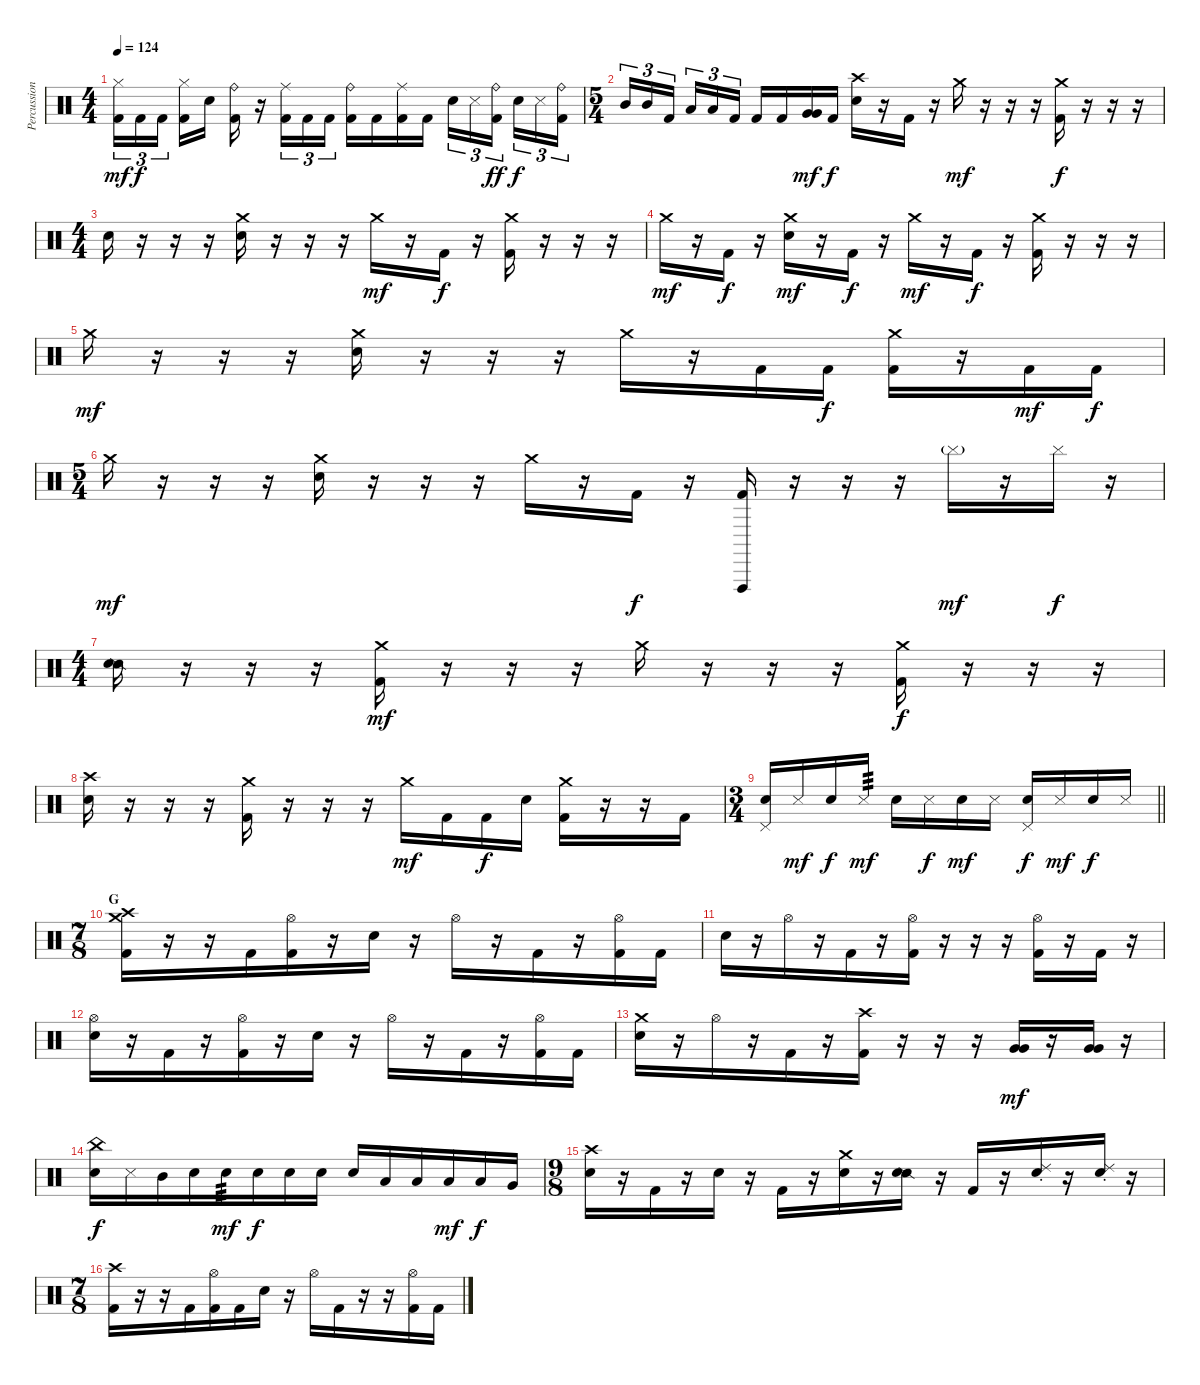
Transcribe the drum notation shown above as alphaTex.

\track ("Percussion" "Percussion") {instrument percussion}
\staff {score}
\articulation defaults
\ts (4 4)
\tempo 124
\clef neutral
\ks c
("Hi-Hat (closed)" "Kick (hit) 2").16{tu (3 2) dy mf} "Kick (hit) 2".16{tu (3 2) dy f} "Kick (hit) 2".16{tu (3 2) beam splitsecondary} ("Hi-Hat (closed)" "Kick (hit) 2").16 "Snare (hit) 2".16 ("Ride (bell)" "Kick (hit) 2").16 r.16 ("Ride (middle)" "Kick (hit) 2").16{tu (3 2)} "Kick (hit) 2".16{tu (3 2)} "Kick (hit) 2".16{tu (3 2)} ("Ride (bell)" "Kick (hit) 2").16 "Kick (hit) 2".16 ("Ride (middle)" "Kick (hit) 2").16 "Kick (hit) 2".16 "Snare (hit) 2".16{tu (3 2)} "Metronome (hit)".16{tu (3 2)} ("Ride (bell)" "Kick (hit) 2").16{tu (3 2) dy ff beam splitsecondary} "Snare (hit) 2".16{tu (3 2) dy f} "Metronome (hit)".16{tu (3 2)} ("Ride (bell)" "Kick (hit) 2").16{tu (3 2)} |
\ts (5 4)
"Mid Tom (hit)".16{tu (3 2)} "Mid Tom (hit)".16{tu (3 2)} "Kick (hit) 2".16{tu (3 2) beam splitsecondary} "Low Tom (hit)".16{tu (3 2)} "Low Tom (hit)".16{tu (3 2)} "Kick (hit) 2".16{tu (3 2)} "Kick (hit) 2".16 "Kick (hit) 2".16 ("Very Low Tom (hit)" "Very Low Tom (hit)").16{bu 60 dy mf} "Kick (hit) 2".16{dy f} ("Crash high (hit)" "Snare (hit) 2").16 r.16 "Kick (hit) 2".16 r.16 "Crash medium (hit)".16{dy mf} r.16 r.16 r.16 ("Crash medium (hit)" "Kick (hit) 2").16{dy f} r.16 r.16 r.16 |
\ts (4 4)
"Snare (hit)".16 r.16 r.16 r.16 ("Crash medium (hit)" "Snare (hit) 2").16 r.16 r.16 r.16 "Crash medium (hit)".16{dy mf} r.16 "Kick (hit) 2".16{dy f} r.16 ("Crash medium (hit)" "Kick (hit) 2").16 r.16 r.16 r.16 |
"Crash medium (hit)".16{dy mf} r.16 "Kick (hit) 2".16{dy f} r.16 ("Crash medium (hit)" "Snare (hit) 2").16{dy mf} r.16 "Kick (hit) 2".16{dy f} r.16 "Crash medium (hit)".16{dy mf} r.16 "Kick (hit) 2".16{dy f} r.16 ("Crash medium (hit)" "Kick (hit) 2").16 r.16 r.16 r.16 |
"Crash medium (hit)".16{dy mf} r.16 r.16 r.16 ("Crash medium (hit)" "Snare (hit) 2").16 r.16 r.16 r.16 "Crash medium (hit)".16 r.16 "Kick (hit) 2".16 "Kick (hit) 2".16{dy f} ("Crash medium (hit)" "Kick (hit) 2").16 r.16 "Kick (hit) 2".16{dy mf} "Kick (hit) 2".16{dy f} |
\ts (5 4)
"Crash medium (hit)".16{dy mf} r.16 r.16 r.16 ("Crash medium (hit)" "Snare (hit) 2").16 r.16 r.16 r.16 "Crash medium (hit)".16 r.16 "Kick (hit) 2".16{dy f} r.16 ("Vibraslap (hit)" "Kick (hit) 2").16 r.16 r.16 r.16 "Cymbal (hit)"{g}.16{dy mf} r.16 "Cymbal (hit)".16{dy f} r.16 |
\ts (4 4)
("Snare (side stick) 2" "Snare (hit) 2").16 r.16 r.16 r.16 ("Crash medium (hit)" "Kick (hit) 2").16{dy mf} r.16 r.16 r.16 "Crash medium (hit)".16 r.16 r.16 r.16 ("Crash medium (hit)" "Kick (hit) 2").16{dy f} r.16 r.16 r.16 |
("Crash high (hit)" "Snare (hit) 2").16 r.16 r.16 r.16 ("Crash medium (hit)" "Kick (hit) 2").16 r.16 r.16 r.16 "Crash medium (hit)".16{dy mf} "Kick (hit) 2".16 "Kick (hit) 2".16{dy f} "Snare (hit) 2".16 ("Crash medium (hit)" "Kick (hit) 2").16 r.16 r.16 "Kick (hit) 2".16 |
\ts (3 4)
\barLineRight lightlight
("Pedal Hi-Hat (hit)" "Snare (hit) 2").16 "Metronome (hit)".16{dy mf} "Snare (hit) 2".16{dy f} "Metronome (hit)".16{tp 3 dy mf} "Snare (hit) 2".16 "Metronome (hit)".16{dy f} "Snare (hit) 2".16{dy mf} "Metronome (hit)".16 ("Pedal Hi-Hat (hit)" "Snare (hit) 2").16{dy f} "Metronome (hit)".16{dy mf} "Snare (hit) 2".16{dy f} "Metronome (hit)".16 |
\ts (7 8)
\section ("" "G")
("Crash medium (hit)" "Crash high (hit)" "Kick (hit) 2").16 r.16 r.16 "Kick (hit) 2".16 ("Hi-Hat (open)" "Kick (hit) 2").16 r.16 "Snare (hit) 2".16 r.16 "Hi-Hat (open)".16 r.16 "Kick (hit) 2".16 r.16 ("Hi-Hat (open)" "Kick (hit) 2").16 "Kick (hit) 2".16 |
"Snare (hit) 2".16 r.16 "Hi-Hat (open)".16 r.16 "Kick (hit) 2".16 r.16 ("Hi-Hat (open)" "Kick (hit) 2").16 r.16 r.16 r.16 ("Hi-Hat (open)" "Kick (hit) 2").16 r.16 "Kick (hit) 2".16 r.16 |
("Hi-Hat (open)" "Snare (hit) 2").16 r.16 "Kick (hit) 2".16 r.16 ("Hi-Hat (open)" "Kick (hit) 2").16 r.16 "Snare (hit) 2".16 r.16 "Hi-Hat (open)".16 r.16 "Kick (hit) 2".16 r.16 ("Hi-Hat (open)" "Kick (hit) 2").16 "Kick (hit) 2".16 |
("Crash medium (hit)" "Snare (hit) 2").16 r.16 "Hi-Hat (open)".16 r.16 "Kick (hit) 2".16 r.16 ("Crash high (hit)" "Kick (hit) 2").16 r.16 r.16 r.16 ("Very Low Tom (hit)" "Very Low Tom (hit)").16{bu 60 dy mf} r.16 ("Very Low Tom (hit)" "Very Low Tom (hit)").16{bu 60} r.16 |
("China (hit)" "Snare (hit) 2").16{dy f} "Metronome (hit)".16 "Mid Tom (hit)".16 "Snare (hit) 2".16 "Snare (hit) 2".16{tp 3 dy mf} "Snare (hit) 2".16{dy f} "Snare (hit) 2".16 "Snare (hit) 2".16 "Snare (hit) 2".16 "Low Tom (hit)".16 "Low Tom (hit)".16 "Low Tom (hit)".16{dy mf} "Low Tom (hit)".16{dy f} "Very Low Tom (hit)".16 |
\ts (9 8)
("Crash high (hit)" "Snare (hit) 2").16 r.16 "Kick (hit) 2".16 r.16 "Snare (hit)".16 r.16 "Kick (hit) 2".16 r.16 ("Crash medium (hit)" "Snare (hit) 2").16 r.16 ("Snare (side stick) 2" "Snare (hit) 2").16 r.16 "Kick (hit) 2".16 r.16 ("Ride (choke) 2" "Snare (hit) 2").16 r.16 ("Ride (choke) 2" "Snare (hit) 2").16 r.16 |
\ts (7 8)
("Crash high (hit)" "Kick (hit) 2").16 r.16 r.16 "Kick (hit) 2".16 ("Hi-Hat (open)" "Kick (hit) 2").16 "Kick (hit) 2".16 "Snare (hit) 2".16 r.16 "Hi-Hat (open)".16 "Kick (hit) 2".16 r.16 r.16 ("Hi-Hat (open)" "Kick (hit) 2").16 "Kick (hit) 2".16
